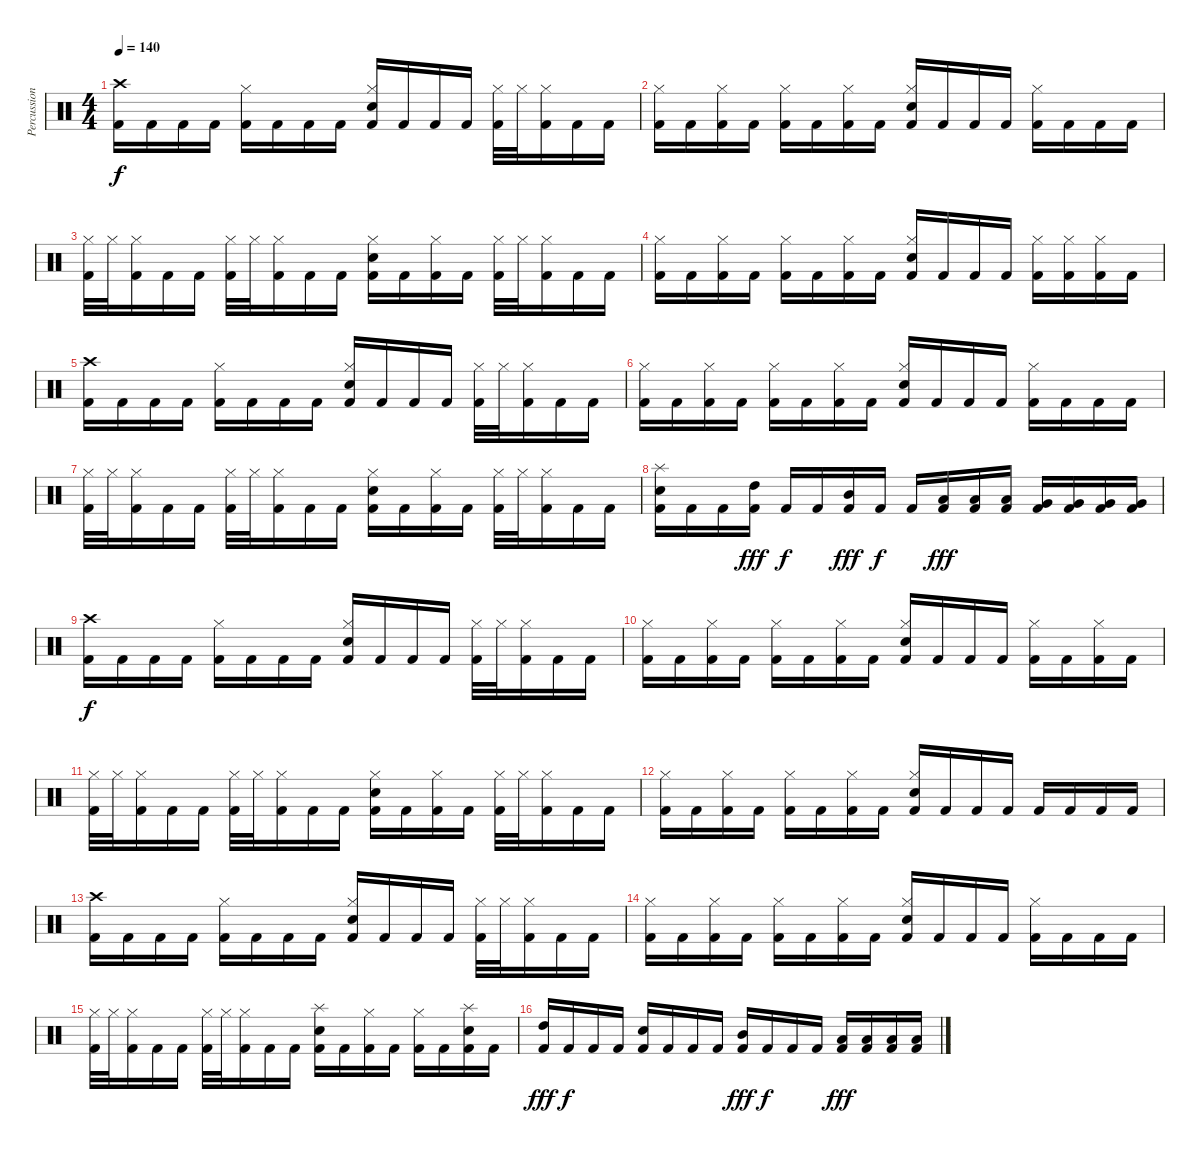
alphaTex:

\track ("Percussion" "Percussion") {instrument percussion}
\staff {score}
\articulation defaults
\ts (4 4)
\tempo 140
\clef neutral
\ks c
("Crash high (hit)" "Kick (hit) 2").16{dy f} "Kick (hit) 2".16 "Kick (hit) 2".16 "Kick (hit) 2".16 ("Hi-Hat (closed)" "Kick (hit) 2").16 "Kick (hit) 2".16 "Kick (hit) 2".16 "Kick (hit) 2".16 ("Hi-Hat (closed)" "Snare (hit) 2" "Kick (hit) 2").16 "Kick (hit) 2".16 "Kick (hit) 2".16 "Kick (hit) 2".16 ("Hi-Hat (closed)" "Kick (hit) 2").32 "Hi-Hat (closed)".32 ("Hi-Hat (closed)" "Kick (hit) 2").16 "Kick (hit) 2".16 "Kick (hit) 2".16 |
("Hi-Hat (closed)" "Kick (hit) 2").16 "Kick (hit) 2".16 ("Hi-Hat (closed)" "Kick (hit) 2").16 "Kick (hit) 2".16 ("Hi-Hat (closed)" "Kick (hit) 2").16 "Kick (hit) 2".16 ("Hi-Hat (closed)" "Kick (hit) 2").16 "Kick (hit) 2".16 ("Hi-Hat (closed)" "Snare (hit) 2" "Kick (hit) 2").16 "Kick (hit) 2".16 "Kick (hit) 2".16 "Kick (hit) 2".16 ("Hi-Hat (closed)" "Kick (hit) 2").16 "Kick (hit) 2".16 "Kick (hit) 2".16 "Kick (hit) 2".16 |
("Hi-Hat (closed)" "Kick (hit) 2").32 "Hi-Hat (closed)".32 ("Hi-Hat (closed)" "Kick (hit) 2").16 "Kick (hit) 2".16 "Kick (hit) 2".16 ("Hi-Hat (closed)" "Kick (hit) 2").32 "Hi-Hat (closed)".32 ("Hi-Hat (closed)" "Kick (hit) 2").16 "Kick (hit) 2".16 "Kick (hit) 2".16 ("Hi-Hat (closed)" "Snare (hit) 2" "Kick (hit) 2").16 "Kick (hit) 2".16 ("Hi-Hat (closed)" "Kick (hit) 2").16 "Kick (hit) 2".16 ("Hi-Hat (closed)" "Kick (hit) 2").32 "Hi-Hat (closed)".32 ("Hi-Hat (closed)" "Kick (hit) 2").16 "Kick (hit) 2".16 "Kick (hit) 2".16 |
("Hi-Hat (closed)" "Kick (hit) 2").16 "Kick (hit) 2".16 ("Hi-Hat (closed)" "Kick (hit) 2").16 "Kick (hit) 2".16 ("Hi-Hat (closed)" "Kick (hit) 2").16 "Kick (hit) 2".16 ("Hi-Hat (closed)" "Kick (hit) 2").16 "Kick (hit) 2".16 ("Hi-Hat (closed)" "Snare (hit) 2" "Kick (hit) 2").16 "Kick (hit) 2".16 "Kick (hit) 2".16 "Kick (hit) 2".16 ("Hi-Hat (closed)" "Kick (hit) 2").16 ("Hi-Hat (closed)" "Kick (hit) 2").16 ("Hi-Hat (closed)" "Kick (hit) 2").16 "Kick (hit) 2".16 |
("Crash high (hit)" "Kick (hit) 2").16 "Kick (hit) 2".16 "Kick (hit) 2".16 "Kick (hit) 2".16 ("Hi-Hat (closed)" "Kick (hit) 2").16 "Kick (hit) 2".16 "Kick (hit) 2".16 "Kick (hit) 2".16 ("Hi-Hat (closed)" "Snare (hit) 2" "Kick (hit) 2").16 "Kick (hit) 2".16 "Kick (hit) 2".16 "Kick (hit) 2".16 ("Hi-Hat (closed)" "Kick (hit) 2").32 "Hi-Hat (closed)".32 ("Hi-Hat (closed)" "Kick (hit) 2").16 "Kick (hit) 2".16 "Kick (hit) 2".16 |
("Hi-Hat (closed)" "Kick (hit) 2").16 "Kick (hit) 2".16 ("Hi-Hat (closed)" "Kick (hit) 2").16 "Kick (hit) 2".16 ("Hi-Hat (closed)" "Kick (hit) 2").16 "Kick (hit) 2".16 ("Hi-Hat (closed)" "Kick (hit) 2").16 "Kick (hit) 2".16 ("Hi-Hat (closed)" "Snare (hit) 2" "Kick (hit) 2").16 "Kick (hit) 2".16 "Kick (hit) 2".16 "Kick (hit) 2".16 ("Hi-Hat (closed)" "Kick (hit) 2").16 "Kick (hit) 2".16 "Kick (hit) 2".16 "Kick (hit) 2".16 |
("Hi-Hat (closed)" "Kick (hit) 2").32 "Hi-Hat (closed)".32 ("Hi-Hat (closed)" "Kick (hit) 2").16 "Kick (hit) 2".16 "Kick (hit) 2".16 ("Hi-Hat (closed)" "Kick (hit) 2").32 "Hi-Hat (closed)".32 ("Hi-Hat (closed)" "Kick (hit) 2").16 "Kick (hit) 2".16 "Kick (hit) 2".16 ("Hi-Hat (closed)" "Snare (hit) 2" "Kick (hit) 2").16 "Kick (hit) 2".16 ("Hi-Hat (closed)" "Kick (hit) 2").16 "Kick (hit) 2".16 ("Hi-Hat (closed)" "Kick (hit) 2").32 "Hi-Hat (closed)".32 ("Hi-Hat (closed)" "Kick (hit) 2").16 "Kick (hit) 2".16 "Kick (hit) 2".16 |
("Splash (hit)" "Snare (hit) 2" "Kick (hit) 2").16 "Kick (hit) 2".16 "Kick (hit) 2".16 ("High Tom (hit)" "Kick (hit) 2").16{dy fff} "Kick (hit) 2".16{dy f} "Kick (hit) 2".16 ("Mid Tom (hit)" "Kick (hit) 2").16{dy fff} "Kick (hit) 2".16{dy f} "Kick (hit) 2".16 ("Low Tom (hit)" "Kick (hit) 2").16{dy fff} ("Low Tom (hit)" "Kick (hit) 2").16 ("Low Tom (hit)" "Kick (hit) 2").16 ("Very Low Tom (hit)" "Kick (hit) 2").16 ("Very Low Tom (hit)" "Kick (hit) 2").16 ("Very Low Tom (hit)" "Kick (hit) 2").16 ("Very Low Tom (hit)" "Kick (hit) 2").16 |
("Crash high (hit)" "Kick (hit) 2").16{dy f} "Kick (hit) 2".16 "Kick (hit) 2".16 "Kick (hit) 2".16 ("Hi-Hat (closed)" "Kick (hit) 2").16 "Kick (hit) 2".16 "Kick (hit) 2".16 "Kick (hit) 2".16 ("Hi-Hat (closed)" "Snare (hit) 2" "Kick (hit) 2").16 "Kick (hit) 2".16 "Kick (hit) 2".16 "Kick (hit) 2".16 ("Hi-Hat (closed)" "Kick (hit) 2").32 "Hi-Hat (closed)".32 ("Hi-Hat (closed)" "Kick (hit) 2").16 "Kick (hit) 2".16 "Kick (hit) 2".16 |
("Hi-Hat (closed)" "Kick (hit) 2").16 "Kick (hit) 2".16 ("Hi-Hat (closed)" "Kick (hit) 2").16 "Kick (hit) 2".16 ("Hi-Hat (closed)" "Kick (hit) 2").16 "Kick (hit) 2".16 ("Hi-Hat (closed)" "Kick (hit) 2").16 "Kick (hit) 2".16 ("Hi-Hat (closed)" "Snare (hit) 2" "Kick (hit) 2").16 "Kick (hit) 2".16 "Kick (hit) 2".16 "Kick (hit) 2".16 ("Hi-Hat (closed)" "Kick (hit) 2").16 "Kick (hit) 2".16 ("Hi-Hat (closed)" "Kick (hit) 2").16 "Kick (hit) 2".16 |
("Hi-Hat (closed)" "Kick (hit) 2").32 "Hi-Hat (closed)".32 ("Hi-Hat (closed)" "Kick (hit) 2").16 "Kick (hit) 2".16 "Kick (hit) 2".16 ("Hi-Hat (closed)" "Kick (hit) 2").32 "Hi-Hat (closed)".32 ("Hi-Hat (closed)" "Kick (hit) 2").16 "Kick (hit) 2".16 "Kick (hit) 2".16 ("Hi-Hat (closed)" "Snare (hit) 2" "Kick (hit) 2").16 "Kick (hit) 2".16 ("Hi-Hat (closed)" "Kick (hit) 2").16 "Kick (hit) 2".16 ("Hi-Hat (closed)" "Kick (hit) 2").32 "Hi-Hat (closed)".32 ("Hi-Hat (closed)" "Kick (hit) 2").16 "Kick (hit) 2".16 "Kick (hit) 2".16 |
("Hi-Hat (closed)" "Kick (hit) 2").16 "Kick (hit) 2".16 ("Hi-Hat (closed)" "Kick (hit) 2").16 "Kick (hit) 2".16 ("Hi-Hat (closed)" "Kick (hit) 2").16 "Kick (hit) 2".16 ("Hi-Hat (closed)" "Kick (hit) 2").16 "Kick (hit) 2".16 ("Hi-Hat (closed)" "Snare (hit) 2" "Kick (hit) 2").16 "Kick (hit) 2".16 "Kick (hit) 2".16 "Kick (hit) 2".16 "Kick (hit) 2".16 "Kick (hit) 2".16 "Kick (hit) 2".16 "Kick (hit) 2".16 |
("Crash high (hit)" "Kick (hit) 2").16 "Kick (hit) 2".16 "Kick (hit) 2".16 "Kick (hit) 2".16 ("Hi-Hat (closed)" "Kick (hit) 2").16 "Kick (hit) 2".16 "Kick (hit) 2".16 "Kick (hit) 2".16 ("Hi-Hat (closed)" "Snare (hit) 2" "Kick (hit) 2").16 "Kick (hit) 2".16 "Kick (hit) 2".16 "Kick (hit) 2".16 ("Hi-Hat (closed)" "Kick (hit) 2").32 "Hi-Hat (closed)".32 ("Hi-Hat (closed)" "Kick (hit) 2").16 "Kick (hit) 2".16 "Kick (hit) 2".16 |
("Hi-Hat (closed)" "Kick (hit) 2").16 "Kick (hit) 2".16 ("Hi-Hat (closed)" "Kick (hit) 2").16 "Kick (hit) 2".16 ("Hi-Hat (closed)" "Kick (hit) 2").16 "Kick (hit) 2".16 ("Hi-Hat (closed)" "Kick (hit) 2").16 "Kick (hit) 2".16 ("Hi-Hat (closed)" "Snare (hit) 2" "Kick (hit) 2").16 "Kick (hit) 2".16 "Kick (hit) 2".16 "Kick (hit) 2".16 ("Hi-Hat (closed)" "Kick (hit) 2").16 "Kick (hit) 2".16 "Kick (hit) 2".16 "Kick (hit) 2".16 |
("Hi-Hat (closed)" "Kick (hit) 2").32 "Hi-Hat (closed)".32 ("Hi-Hat (closed)" "Kick (hit) 2").16 "Kick (hit) 2".16 "Kick (hit) 2".16 ("Hi-Hat (closed)" "Kick (hit) 2").32 "Hi-Hat (closed)".32 ("Hi-Hat (closed)" "Kick (hit) 2").16 "Kick (hit) 2".16 "Kick (hit) 2".16 ("Splash (hit)" "Snare (hit) 2" "Kick (hit) 2").16 "Kick (hit) 2".16 ("Hi-Hat (closed)" "Kick (hit) 2").16 "Kick (hit) 2".16 ("Hi-Hat (closed)" "Kick (hit) 2").16 "Kick (hit) 2".16 ("Splash (hit)" "Snare (hit) 2" "Kick (hit) 2").16 "Kick (hit) 2".16 |
("High Tom (hit)" "Kick (hit) 2").16{dy fff} "Kick (hit) 2".16{dy f} "Kick (hit) 2".16 "Kick (hit) 2".16 ("Snare (hit) 2" "Kick (hit) 2").16 "Kick (hit) 2".16 "Kick (hit) 2".16 "Kick (hit) 2".16 ("Mid Tom (hit)" "Kick (hit) 2").16{dy fff} "Kick (hit) 2".16{dy f} "Kick (hit) 2".16 "Kick (hit) 2".16 ("Low Tom (hit)" "Kick (hit) 2").16{dy fff} ("Low Tom (hit)" "Kick (hit) 2").16 ("Low Tom (hit)" "Kick (hit) 2").16 ("Low Tom (hit)" "Kick (hit) 2").16
